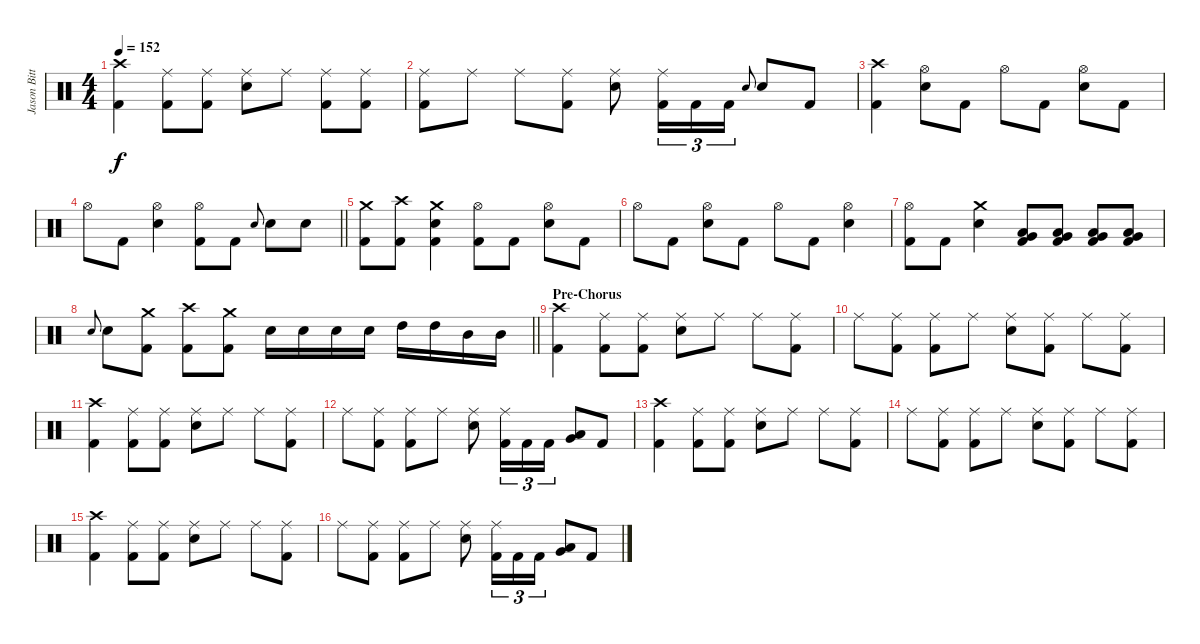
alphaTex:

\track ("Jason Bittner" "Jason Bitt") {instrument percussion}
\staff {score}
\articulation defaults
\ts (4 4)
\tempo 152
\clef neutral
\ks c
("Crash high (hit)" "Kick (hit) 2").4{dy f} ("Ride (middle)" "Kick (hit) 2").8 ("Ride (middle)" "Kick (hit) 2").8 ("Ride (middle)" "Electric Snare (hit)").8 "Ride (middle)".8 ("Ride (middle)" "Kick (hit) 2").8 ("Ride (middle)" "Kick (hit) 2").8 |
("Ride (middle)" "Kick (hit) 2").8 "Ride (middle)".8 "Ride (middle)".8 ("Ride (middle)" "Kick (hit) 2").8 ("Ride (middle)" "Electric Snare (hit)").8 ("Ride (middle)" "Kick (hit) 2").16{tu (3 2)} "Kick (hit) 2".16{tu (3 2)} "Kick (hit) 2".16{tu (3 2)} "Electric Snare (hit)".8{gr onbeat} "Electric Snare (hit)".8 "Kick (hit) 2".8 |
("Crash high (hit)" "Kick (hit) 2").4 ("Hi-Hat (open)" "Electric Snare (hit)").8 "Kick (hit) 2".8 "Hi-Hat (open)".8 "Kick (hit) 2".8 ("Hi-Hat (open)" "Electric Snare (hit)").8 "Kick (hit) 2".8 |
\barLineRight lightlight "Hi-Hat (open)".8 "Kick (hit) 2".8
("Hi-Hat (open)" "Electric Snare (hit)").4 ("Hi-Hat (open)" "Kick (hit) 2").8 "Kick (hit) 2".8 "Electric Snare (hit)".8{gr onbeat} "Electric Snare (hit)".8 "Electric Snare (hit)".8 |
("Crash medium (hit)" "Kick (hit) 2").8 ("Crash high (hit)" "Kick (hit) 2").8 ("Crash medium (hit)" "Electric Snare (hit)" "Kick (hit) 2").4 ("Hi-Hat (open)" "Kick (hit) 2").8 "Kick (hit) 2".8 ("Hi-Hat (open)" "Electric Snare (hit)").8 "Kick (hit) 2".8 |
"Hi-Hat (open)".8 "Kick (hit) 2".8 ("Hi-Hat (open)" "Electric Snare (hit)").8 "Kick (hit) 2".8 "Hi-Hat (open)".8 "Kick (hit) 2".8 ("Hi-Hat (open)" "Electric Snare (hit)").4 |
("Hi-Hat (open)" "Kick (hit) 2").8 "Kick (hit) 2".8 ("Crash medium (hit)" "Electric Snare (hit)").4 ("Low Tom (hit)" "Very Low Tom (hit)" "Kick (hit) 2").8 ("Low Tom (hit)" "Very Low Tom (hit)" "Kick (hit) 2").8 ("Low Tom (hit)" "Very Low Tom (hit)" "Kick (hit) 2").8 ("Low Tom (hit)" "Very Low Tom (hit)" "Kick (hit) 2").8 |
\barLineRight lightlight "Electric Snare (hit)".8{gr onbeat} "Electric Snare (hit)".8
("Crash medium (hit)" "Kick (hit) 2").8 ("Crash high (hit)" "Kick (hit) 2").8 ("Crash medium (hit)" "Kick (hit) 2").8 "Electric Snare (hit)".16 "Electric Snare (hit)".16 "Electric Snare (hit)".16 "Electric Snare (hit)".16 "High Tom (hit)".16 "High Tom (hit)".16 "Mid Tom (hit)".16 "Mid Tom (hit)".16 |
\section ("" "Pre-Chorus")
("Crash high (hit)" "Kick (hit) 2").4 ("Ride (middle)" "Kick (hit) 2").8 ("Ride (middle)" "Kick (hit) 2").8 ("Ride (middle)" "Electric Snare (hit)").8 "Ride (middle)".8 "Ride (middle)".8 ("Ride (middle)" "Kick (hit) 2").8 |
"Ride (middle)".8 ("Ride (middle)" "Kick (hit) 2").8 ("Ride (middle)" "Kick (hit) 2").8 "Ride (middle)".8 ("Ride (middle)" "Electric Snare (hit)").8 ("Ride (middle)" "Kick (hit) 2").8 "Ride (middle)".8 ("Ride (middle)" "Kick (hit) 2").8 |
("Crash high (hit)" "Kick (hit) 2").4 ("Ride (middle)" "Kick (hit) 2").8 ("Ride (middle)" "Kick (hit) 2").8 ("Ride (middle)" "Electric Snare (hit)").8 "Ride (middle)".8 "Ride (middle)".8 ("Ride (middle)" "Kick (hit) 2").8 |
"Ride (middle)".8 ("Ride (middle)" "Kick (hit) 2").8 ("Ride (middle)" "Kick (hit) 2").8 "Ride (middle)".8 ("Ride (middle)" "Electric Snare (hit)").8 ("Ride (middle)" "Kick (hit) 2").16{tu (3 2)} "Kick (hit) 2".16{tu (3 2)} "Kick (hit) 2".16{tu (3 2)} ("Low Tom (hit)" "Very Low Tom (hit)").8 "Kick (hit) 2".8 |
("Crash high (hit)" "Kick (hit) 2").4 ("Ride (middle)" "Kick (hit) 2").8 ("Ride (middle)" "Kick (hit) 2").8 ("Ride (middle)" "Electric Snare (hit)").8 "Ride (middle)".8 "Ride (middle)".8 ("Ride (middle)" "Kick (hit) 2").8 |
"Ride (middle)".8 ("Ride (middle)" "Kick (hit) 2").8 ("Ride (middle)" "Kick (hit) 2").8 "Ride (middle)".8 ("Ride (middle)" "Electric Snare (hit)").8 ("Ride (middle)" "Kick (hit) 2").8 "Ride (middle)".8 ("Ride (middle)" "Kick (hit) 2").8 |
("Crash high (hit)" "Kick (hit) 2").4 ("Ride (middle)" "Kick (hit) 2").8 ("Ride (middle)" "Kick (hit) 2").8 ("Ride (middle)" "Electric Snare (hit)").8 "Ride (middle)".8 "Ride (middle)".8 ("Ride (middle)" "Kick (hit) 2").8 |
"Ride (middle)".8 ("Ride (middle)" "Kick (hit) 2").8 ("Ride (middle)" "Kick (hit) 2").8 "Ride (middle)".8 ("Ride (middle)" "Electric Snare (hit)").8 ("Ride (middle)" "Kick (hit) 2").16{tu (3 2)} "Kick (hit) 2".16{tu (3 2)} "Kick (hit) 2".16{tu (3 2)} ("Low Tom (hit)" "Very Low Tom (hit)").8 "Kick (hit) 2".8
